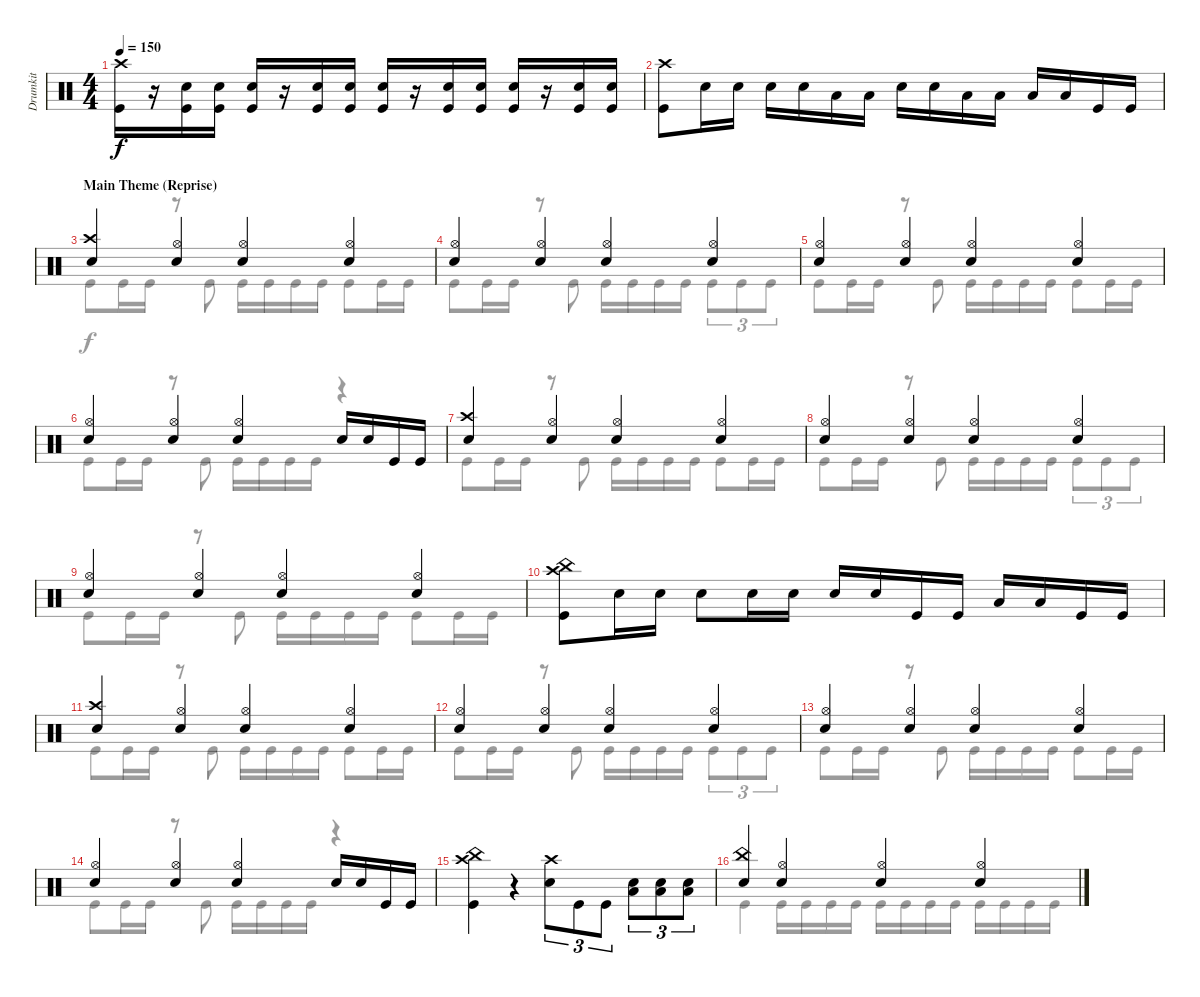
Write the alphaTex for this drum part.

\track ("Drumkit" "Drumkit") {instrument percussion}
\staff {score}
\articulation defaults
\voice
\ts (4 4)
\tempo 150
\clef neutral
\ks c
("Kick (hit)" "Crash high (hit)").16{dy f} r.16 ("Kick (hit)" "Snare (hit) 2").16 ("Kick (hit)" "Snare (hit) 2").16 ("Kick (hit)" "Snare (hit) 2").16 r.16 ("Kick (hit)" "Snare (hit) 2").16 ("Kick (hit)" "Snare (hit) 2").16 ("Kick (hit)" "Snare (hit) 2").16 r.16 ("Snare (hit) 2" "Kick (hit)").16 ("Kick (hit)" "Snare (hit) 2").16 ("Kick (hit)" "Snare (hit) 2").16 r.16 ("Kick (hit)" "Snare (hit) 2").16 ("Kick (hit)" "Snare (hit) 2").16 |
("Kick (hit)" "Crash high (hit)").8 "Snare (hit) 2".16 "Snare (hit) 2".16 "Snare (hit) 2".16 "Snare (hit) 2".16 "Low Tom (hit)".16 "Low Tom (hit)".16 "Snare (hit) 2".16 "Snare (hit) 2".16 "Low Tom (hit)".16 "Low Tom (hit)".16 "Low Floor Tom (hit)".16 "Low Floor Tom (hit)".16 "Kick (hit)".16 "Kick (hit)".16 |
\section ("" "Main Theme (Reprise)")
("Snare (hit) 2" "Crash high (hit)").4 ("Snare (hit) 2" "Hi-Hat (open)").4 ("Snare (hit) 2" "Hi-Hat (open)").4 ("Snare (hit) 2" "Hi-Hat (open)").4 |
("Snare (hit) 2" "Hi-Hat (open)").4 ("Snare (hit) 2" "Hi-Hat (open)").4 ("Snare (hit) 2" "Hi-Hat (open)").4 ("Snare (hit) 2" "Hi-Hat (open)").4 |
("Snare (hit) 2" "Hi-Hat (open)").4 ("Snare (hit) 2" "Hi-Hat (open)").4 ("Snare (hit) 2" "Hi-Hat (open)").4 ("Snare (hit) 2" "Hi-Hat (open)").4 |
("Snare (hit) 2" "Hi-Hat (open)").4 ("Snare (hit) 2" "Hi-Hat (open)").4 ("Snare (hit) 2" "Hi-Hat (open)").4 "Snare (hit) 2".16 "Snare (hit) 2".16 "Kick (hit)".16 "Kick (hit)".16 |
("Snare (hit) 2" "Crash high (hit)").4 ("Snare (hit) 2" "Hi-Hat (open)").4 ("Snare (hit) 2" "Hi-Hat (open)").4 ("Snare (hit) 2" "Hi-Hat (open)").4 |
("Snare (hit) 2" "Hi-Hat (open)").4 ("Snare (hit) 2" "Hi-Hat (open)").4 ("Snare (hit) 2" "Hi-Hat (open)").4 ("Snare (hit) 2" "Hi-Hat (open)").4 |
("Snare (hit) 2" "Hi-Hat (open)").4 ("Snare (hit) 2" "Hi-Hat (open)").4 ("Snare (hit) 2" "Hi-Hat (open)").4 ("Snare (hit) 2" "Hi-Hat (open)").4 |
("Kick (hit)" "China (hit)" "Crash high (hit)").8 "Snare (hit) 2".16 "Snare (hit) 2".16 "Snare (hit) 2".8 "Snare (hit) 2".16 "Snare (hit) 2".16 "Snare (hit) 2".16 "Snare (hit) 2".16 "Kick (hit)".16 "Kick (hit)".16 "Low Tom (hit)".16 "Low Tom (hit)".16 "Kick (hit)".16 "Kick (hit)".16 |
("Snare (hit) 2" "Crash high (hit)").4 ("Snare (hit) 2" "Hi-Hat (open)").4 ("Snare (hit) 2" "Hi-Hat (open)").4 ("Snare (hit) 2" "Hi-Hat (open)").4 |
("Snare (hit) 2" "Hi-Hat (open)").4 ("Snare (hit) 2" "Hi-Hat (open)").4 ("Snare (hit) 2" "Hi-Hat (open)").4 ("Snare (hit) 2" "Hi-Hat (open)").4 |
("Snare (hit) 2" "Hi-Hat (open)").4 ("Snare (hit) 2" "Hi-Hat (open)").4 ("Snare (hit) 2" "Hi-Hat (open)").4 ("Snare (hit) 2" "Hi-Hat (open)").4 |
("Snare (hit) 2" "Hi-Hat (open)").4 ("Snare (hit) 2" "Hi-Hat (open)").4 ("Snare (hit) 2" "Hi-Hat (open)").4 "Snare (hit) 2".16 "Snare (hit) 2".16 "Kick (hit)".16 "Kick (hit)".16 |
("Kick (hit)" "Crash high (hit)" "China (hit)").4 r.4 ("Snare (hit) 2" "Crash high (hit)").8{tu (3 2)} "Kick (hit)".8{tu (3 2)} "Kick (hit)".8{tu (3 2)} ("Snare (hit) 2" "Low Floor Tom (hit)").8{tu (3 2)} ("Snare (hit) 2" "Low Floor Tom (hit)").8{tu (3 2)} ("Snare (hit) 2" "Low Floor Tom (hit)").8{tu (3 2)} |
("Snare (hit) 2" "China (hit)").4 ("Snare (hit) 2" "Hi-Hat (open)").4 ("Snare (hit) 2" "Hi-Hat (open)").4 ("Snare (hit) 2" "Hi-Hat (open)").4
\voice
\clef neutral
\ottava regular
\simile none
\ks c
|
|
"Kick (hit)".8 "Kick (hit)".16 "Kick (hit)".16 r.8 "Kick (hit)".8 "Kick (hit)".16 "Kick (hit)".16 "Kick (hit)".16 "Kick (hit)".16 "Kick (hit)".8 "Kick (hit)".16 "Kick (hit)".16 |
"Kick (hit)".8 "Kick (hit)".16 "Kick (hit)".16 r.8 "Kick (hit)".8 "Kick (hit)".16 "Kick (hit)".16 "Kick (hit)".16 "Kick (hit)".16 "Kick (hit)".8{tu (3 2)} "Kick (hit)".8{tu (3 2)} "Kick (hit)".8{tu (3 2)} |
"Kick (hit)".8 "Kick (hit)".16 "Kick (hit)".16 r.8 "Kick (hit)".8 "Kick (hit)".16 "Kick (hit)".16 "Kick (hit)".16 "Kick (hit)".16 "Kick (hit)".8 "Kick (hit)".16 "Kick (hit)".16 |
"Kick (hit)".8 "Kick (hit)".16 "Kick (hit)".16 r.8 "Kick (hit)".8 "Kick (hit)".16 "Kick (hit)".16 "Kick (hit)".16 "Kick (hit)".16 r.4 |
"Kick (hit)".8 "Kick (hit)".16 "Kick (hit)".16 r.8 "Kick (hit)".8 "Kick (hit)".16 "Kick (hit)".16 "Kick (hit)".16 "Kick (hit)".16 "Kick (hit)".8 "Kick (hit)".16 "Kick (hit)".16 |
"Kick (hit)".8 "Kick (hit)".16 "Kick (hit)".16 r.8 "Kick (hit)".8 "Kick (hit)".16 "Kick (hit)".16 "Kick (hit)".16 "Kick (hit)".16 "Kick (hit)".8{tu (3 2)} "Kick (hit)".8{tu (3 2)} "Kick (hit)".8{tu (3 2)} |
"Kick (hit)".8 "Kick (hit)".16 "Kick (hit)".16 r.8 "Kick (hit)".8 "Kick (hit)".16 "Kick (hit)".16 "Kick (hit)".16 "Kick (hit)".16 "Kick (hit)".8 "Kick (hit)".16 "Kick (hit)".16 |
|
"Kick (hit)".8 "Kick (hit)".16 "Kick (hit)".16 r.8 "Kick (hit)".8 "Kick (hit)".16 "Kick (hit)".16 "Kick (hit)".16 "Kick (hit)".16 "Kick (hit)".8 "Kick (hit)".16 "Kick (hit)".16 |
"Kick (hit)".8 "Kick (hit)".16 "Kick (hit)".16 r.8 "Kick (hit)".8 "Kick (hit)".16 "Kick (hit)".16 "Kick (hit)".16 "Kick (hit)".16 "Kick (hit)".8{tu (3 2)} "Kick (hit)".8{tu (3 2)} "Kick (hit)".8{tu (3 2)} |
"Kick (hit)".8 "Kick (hit)".16 "Kick (hit)".16 r.8 "Kick (hit)".8 "Kick (hit)".16 "Kick (hit)".16 "Kick (hit)".16 "Kick (hit)".16 "Kick (hit)".8 "Kick (hit)".16 "Kick (hit)".16 |
"Kick (hit)".8 "Kick (hit)".16 "Kick (hit)".16 r.8 "Kick (hit)".8 "Kick (hit)".16 "Kick (hit)".16 "Kick (hit)".16 "Kick (hit)".16 r.4 |
|
"Kick (hit)".4 "Kick (hit)".16 "Kick (hit)".16 "Kick (hit)".16 "Kick (hit)".16 "Kick (hit)".16 "Kick (hit)".16 "Kick (hit)".16 "Kick (hit)".16 "Kick (hit)".16 "Kick (hit)".16 "Kick (hit)".16 "Kick (hit)".16
